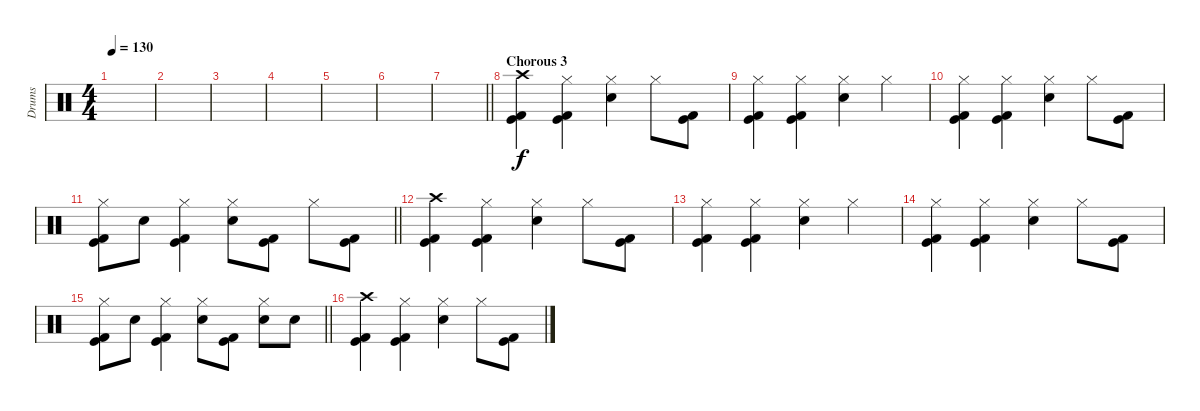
\track ("Drums" "Drums") {instrument percussion}
\staff {score}
\articulation defaults
\ts (4 4)
\tempo 130
\clef neutral
\ks c
|
|
|
|
|
|
\barLineRight lightlight
|
\section ("" "Chorous 3")
("Crash high (hit)" "Kick (hit)" "Kick (hit) 2").4{dy f} ("Hi-Hat (closed)" "Kick (hit)" "Kick (hit) 2").4 ("Hi-Hat (closed)" "Electric Snare (hit)").4 "Hi-Hat (closed)".8 ("Kick (hit)" "Kick (hit) 2").8 |
("Hi-Hat (closed)" "Kick (hit)" "Kick (hit) 2").4 ("Hi-Hat (closed)" "Kick (hit)" "Kick (hit) 2").4 ("Hi-Hat (closed)" "Electric Snare (hit)").4 "Hi-Hat (closed)".4 |
("Hi-Hat (closed)" "Kick (hit)" "Kick (hit) 2").4 ("Hi-Hat (closed)" "Kick (hit)" "Kick (hit) 2").4 ("Hi-Hat (closed)" "Electric Snare (hit)").4 "Hi-Hat (closed)".8 ("Kick (hit)" "Kick (hit) 2").8 |
\barLineRight lightlight
("Hi-Hat (closed)" "Kick (hit)" "Kick (hit) 2").8 "Electric Snare (hit)".8 ("Hi-Hat (closed)" "Kick (hit)" "Kick (hit) 2").4 ("Hi-Hat (closed)" "Electric Snare (hit)").8 ("Kick (hit)" "Kick (hit) 2").8 "Hi-Hat (closed)".8 ("Kick (hit)" "Kick (hit) 2").8 |
("Crash high (hit)" "Kick (hit)" "Kick (hit) 2").4 ("Hi-Hat (closed)" "Kick (hit)" "Kick (hit) 2").4 ("Hi-Hat (closed)" "Electric Snare (hit)").4 "Hi-Hat (closed)".8 ("Kick (hit)" "Kick (hit) 2").8 |
("Hi-Hat (closed)" "Kick (hit)" "Kick (hit) 2").4 ("Hi-Hat (closed)" "Kick (hit)" "Kick (hit) 2").4 ("Hi-Hat (closed)" "Electric Snare (hit)").4 "Hi-Hat (closed)".4 |
("Hi-Hat (closed)" "Kick (hit)" "Kick (hit) 2").4 ("Hi-Hat (closed)" "Kick (hit)" "Kick (hit) 2").4 ("Hi-Hat (closed)" "Electric Snare (hit)").4 "Hi-Hat (closed)".8 ("Kick (hit)" "Kick (hit) 2").8 |
\barLineRight lightlight
("Hi-Hat (closed)" "Kick (hit)" "Kick (hit) 2").8 "Electric Snare (hit)".8 ("Hi-Hat (closed)" "Kick (hit)" "Kick (hit) 2").4 ("Hi-Hat (closed)" "Electric Snare (hit)").8 ("Kick (hit)" "Kick (hit) 2").8 ("Hi-Hat (closed)" "Electric Snare (hit)").8 "Electric Snare (hit)".8 |
("Crash high (hit)" "Kick (hit)" "Kick (hit) 2").4 ("Hi-Hat (closed)" "Kick (hit)" "Kick (hit) 2").4 ("Hi-Hat (closed)" "Electric Snare (hit)").4 "Hi-Hat (closed)".8 ("Kick (hit)" "Kick (hit) 2").8
